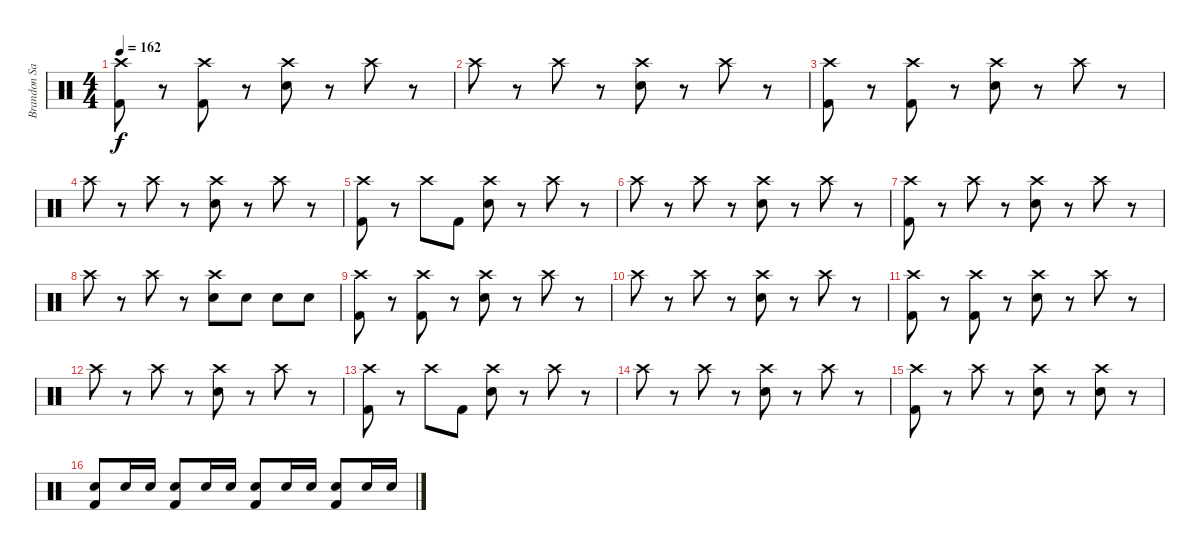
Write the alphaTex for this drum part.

\track ("Brandon Saller" "Brandon Sa") {instrument percussion}
\staff {score}
\articulation defaults
\ts (4 4)
\tempo 162
\clef neutral
\ks c
("Crash high (hit)" "Kick (hit) 2").8{dy f} r.8 ("Crash high (hit)" "Kick (hit) 2").8 r.8 ("Crash high (hit)" "Electric Snare (hit)").8 r.8 "Crash high (hit)".8 r.8 |
"Crash high (hit)".8 r.8 "Crash high (hit)".8 r.8 ("Crash high (hit)" "Electric Snare (hit)").8 r.8 "Crash high (hit)".8 r.8 |
("Crash high (hit)" "Kick (hit) 2").8 r.8 ("Crash high (hit)" "Kick (hit) 2").8 r.8 ("Crash high (hit)" "Electric Snare (hit)").8 r.8 "Crash high (hit)".8 r.8 |
"Crash high (hit)".8 r.8 "Crash high (hit)".8 r.8 ("Crash high (hit)" "Electric Snare (hit)").8 r.8 "Crash high (hit)".8 r.8 |
("Crash high (hit)" "Kick (hit) 2").8 r.8 "Crash high (hit)".8 "Kick (hit) 2".8 ("Crash high (hit)" "Electric Snare (hit)").8 r.8 "Crash high (hit)".8 r.8 |
"Crash high (hit)".8 r.8 "Crash high (hit)".8 r.8 ("Crash high (hit)" "Electric Snare (hit)").8 r.8 "Crash high (hit)".8 r.8 |
("Crash high (hit)" "Kick (hit) 2").8 r.8 "Crash high (hit)".8 r.8 ("Crash high (hit)" "Electric Snare (hit)").8 r.8 "Crash high (hit)".8 r.8 |
"Crash high (hit)".8 r.8 "Crash high (hit)".8 r.8 ("Crash high (hit)" "Electric Snare (hit)").8 "Electric Snare (hit)".8 "Electric Snare (hit)".8 "Electric Snare (hit)".8 |
("Crash high (hit)" "Kick (hit) 2").8 r.8 ("Crash high (hit)" "Kick (hit) 2").8 r.8 ("Crash high (hit)" "Electric Snare (hit)").8 r.8 "Crash high (hit)".8 r.8 |
"Crash high (hit)".8 r.8 "Crash high (hit)".8 r.8 ("Crash high (hit)" "Electric Snare (hit)").8 r.8 "Crash high (hit)".8 r.8 |
("Crash high (hit)" "Kick (hit) 2").8 r.8 ("Crash high (hit)" "Kick (hit) 2").8 r.8 ("Crash high (hit)" "Electric Snare (hit)").8 r.8 "Crash high (hit)".8 r.8 |
"Crash high (hit)".8 r.8 "Crash high (hit)".8 r.8 ("Crash high (hit)" "Electric Snare (hit)").8 r.8 "Crash high (hit)".8 r.8 |
("Crash high (hit)" "Kick (hit) 2").8 r.8 "Crash high (hit)".8 "Kick (hit) 2".8 ("Crash high (hit)" "Electric Snare (hit)").8 r.8 "Crash high (hit)".8 r.8 |
"Crash high (hit)".8 r.8 "Crash high (hit)".8 r.8 ("Crash high (hit)" "Electric Snare (hit)").8 r.8 "Crash high (hit)".8 r.8 |
("Crash high (hit)" "Kick (hit) 2").8 r.8 "Crash high (hit)".8 r.8 ("Crash high (hit)" "Electric Snare (hit)").8 r.8 ("Crash high (hit)" "Electric Snare (hit)").8 r.8 |
("Electric Snare (hit)" "Kick (hit) 2").8 "Electric Snare (hit)".16 "Electric Snare (hit)".16 ("Electric Snare (hit)" "Kick (hit) 2").8 "Electric Snare (hit)".16 "Electric Snare (hit)".16 ("Electric Snare (hit)" "Kick (hit) 2").8 "Electric Snare (hit)".16 "Electric Snare (hit)".16 ("Electric Snare (hit)" "Kick (hit) 2").8 "Electric Snare (hit)".16 "Electric Snare (hit)".16
